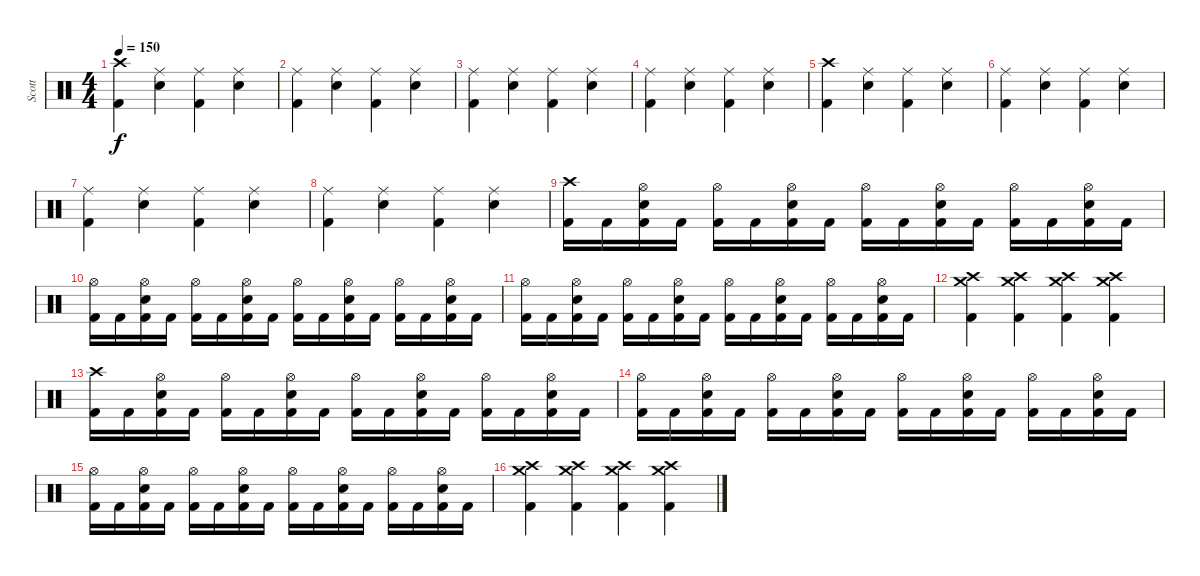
\track ("Scott" "Scott") {instrument percussion}
\staff {score}
\articulation defaults
\ts (4 4)
\tempo 150
\clef neutral
\ks c
("Crash high (hit)" "Kick (hit) 2").4{dy f} ("Ride (middle)" "Snare (hit) 2").4 ("Ride (middle)" "Kick (hit) 2").4 ("Ride (middle)" "Snare (hit) 2").4 |
("Ride (middle)" "Kick (hit) 2").4 ("Ride (middle)" "Snare (hit) 2").4 ("Ride (middle)" "Kick (hit) 2").4 ("Ride (middle)" "Snare (hit) 2").4 |
("Ride (middle)" "Kick (hit) 2").4 ("Ride (middle)" "Snare (hit) 2").4 ("Ride (middle)" "Kick (hit) 2").4 ("Ride (middle)" "Snare (hit) 2").4 |
("Ride (middle)" "Kick (hit) 2").4 ("Ride (middle)" "Snare (hit) 2").4 ("Ride (middle)" "Kick (hit) 2").4 ("Ride (middle)" "Snare (hit) 2").4 |
("Crash high (hit)" "Kick (hit) 2").4 ("Ride (middle)" "Snare (hit) 2").4 ("Ride (middle)" "Kick (hit) 2").4 ("Ride (middle)" "Snare (hit) 2").4 |
("Ride (middle)" "Kick (hit) 2").4 ("Ride (middle)" "Snare (hit) 2").4 ("Ride (middle)" "Kick (hit) 2").4 ("Ride (middle)" "Snare (hit) 2").4 |
("Ride (middle)" "Kick (hit) 2").4 ("Ride (middle)" "Snare (hit) 2").4 ("Ride (middle)" "Kick (hit) 2").4 ("Ride (middle)" "Snare (hit) 2").4 |
("Ride (middle)" "Kick (hit) 2").4 ("Ride (middle)" "Snare (hit) 2").4 ("Ride (middle)" "Kick (hit) 2").4 ("Ride (middle)" "Snare (hit) 2").4 |
("Crash high (hit)" "Kick (hit) 2").16 "Kick (hit) 2".16 ("Hi-Hat (open)" "Snare (hit) 2" "Kick (hit) 2").16 "Kick (hit) 2".16 ("Hi-Hat (open)" "Kick (hit) 2").16 "Kick (hit) 2".16 ("Hi-Hat (open)" "Snare (hit) 2" "Kick (hit) 2").16 "Kick (hit) 2".16 ("Hi-Hat (open)" "Kick (hit) 2").16 "Kick (hit) 2".16 ("Hi-Hat (open)" "Snare (hit) 2" "Kick (hit) 2").16 "Kick (hit) 2".16 ("Hi-Hat (open)" "Kick (hit) 2").16 "Kick (hit) 2".16 ("Hi-Hat (open)" "Snare (hit) 2" "Kick (hit) 2").16 "Kick (hit) 2".16 |
("Hi-Hat (open)" "Kick (hit) 2").16 "Kick (hit) 2".16 ("Hi-Hat (open)" "Snare (hit) 2" "Kick (hit) 2").16 "Kick (hit) 2".16 ("Hi-Hat (open)" "Kick (hit) 2").16 "Kick (hit) 2".16 ("Hi-Hat (open)" "Snare (hit) 2" "Kick (hit) 2").16 "Kick (hit) 2".16 ("Hi-Hat (open)" "Kick (hit) 2").16 "Kick (hit) 2".16 ("Hi-Hat (open)" "Snare (hit) 2" "Kick (hit) 2").16 "Kick (hit) 2".16 ("Hi-Hat (open)" "Kick (hit) 2").16 "Kick (hit) 2".16 ("Hi-Hat (open)" "Snare (hit) 2" "Kick (hit) 2").16 "Kick (hit) 2".16 |
("Hi-Hat (open)" "Kick (hit) 2").16 "Kick (hit) 2".16 ("Hi-Hat (open)" "Snare (hit) 2" "Kick (hit) 2").16 "Kick (hit) 2".16 ("Hi-Hat (open)" "Kick (hit) 2").16 "Kick (hit) 2".16 ("Hi-Hat (open)" "Snare (hit) 2" "Kick (hit) 2").16 "Kick (hit) 2".16 ("Hi-Hat (open)" "Kick (hit) 2").16 "Kick (hit) 2".16 ("Hi-Hat (open)" "Snare (hit) 2" "Kick (hit) 2").16 "Kick (hit) 2".16 ("Hi-Hat (open)" "Kick (hit) 2").16 "Kick (hit) 2".16 ("Hi-Hat (open)" "Snare (hit) 2" "Kick (hit) 2").16 "Kick (hit) 2".16 |
("Crash high (hit)" "Crash medium (hit)" "Kick (hit) 2").4 ("Crash medium (hit)" "Crash high (hit)" "Kick (hit) 2").4 ("Crash high (hit)" "Crash medium (hit)" "Kick (hit) 2").4 ("Crash medium (hit)" "Crash high (hit)" "Kick (hit) 2").4 |
("Crash high (hit)" "Kick (hit) 2").16 "Kick (hit) 2".16 ("Hi-Hat (open)" "Snare (hit) 2" "Kick (hit) 2").16 "Kick (hit) 2".16 ("Hi-Hat (open)" "Kick (hit) 2").16 "Kick (hit) 2".16 ("Hi-Hat (open)" "Snare (hit) 2" "Kick (hit) 2").16 "Kick (hit) 2".16 ("Hi-Hat (open)" "Kick (hit) 2").16 "Kick (hit) 2".16 ("Hi-Hat (open)" "Snare (hit) 2" "Kick (hit) 2").16 "Kick (hit) 2".16 ("Hi-Hat (open)" "Kick (hit) 2").16 "Kick (hit) 2".16 ("Hi-Hat (open)" "Snare (hit) 2" "Kick (hit) 2").16 "Kick (hit) 2".16 |
("Hi-Hat (open)" "Kick (hit) 2").16 "Kick (hit) 2".16 ("Hi-Hat (open)" "Snare (hit) 2" "Kick (hit) 2").16 "Kick (hit) 2".16 ("Hi-Hat (open)" "Kick (hit) 2").16 "Kick (hit) 2".16 ("Hi-Hat (open)" "Snare (hit) 2" "Kick (hit) 2").16 "Kick (hit) 2".16 ("Hi-Hat (open)" "Kick (hit) 2").16 "Kick (hit) 2".16 ("Hi-Hat (open)" "Snare (hit) 2" "Kick (hit) 2").16 "Kick (hit) 2".16 ("Hi-Hat (open)" "Kick (hit) 2").16 "Kick (hit) 2".16 ("Hi-Hat (open)" "Snare (hit) 2" "Kick (hit) 2").16 "Kick (hit) 2".16 |
("Hi-Hat (open)" "Kick (hit) 2").16 "Kick (hit) 2".16 ("Hi-Hat (open)" "Snare (hit) 2" "Kick (hit) 2").16 "Kick (hit) 2".16 ("Hi-Hat (open)" "Kick (hit) 2").16 "Kick (hit) 2".16 ("Hi-Hat (open)" "Snare (hit) 2" "Kick (hit) 2").16 "Kick (hit) 2".16 ("Hi-Hat (open)" "Kick (hit) 2").16 "Kick (hit) 2".16 ("Hi-Hat (open)" "Snare (hit) 2" "Kick (hit) 2").16 "Kick (hit) 2".16 ("Hi-Hat (open)" "Kick (hit) 2").16 "Kick (hit) 2".16 ("Hi-Hat (open)" "Snare (hit) 2" "Kick (hit) 2").16 "Kick (hit) 2".16 |
("Crash high (hit)" "Crash medium (hit)" "Kick (hit) 2").4 ("Crash medium (hit)" "Crash high (hit)" "Kick (hit) 2").4 ("Crash high (hit)" "Crash medium (hit)" "Kick (hit) 2").4 ("Crash medium (hit)" "Crash high (hit)" "Kick (hit) 2").4
